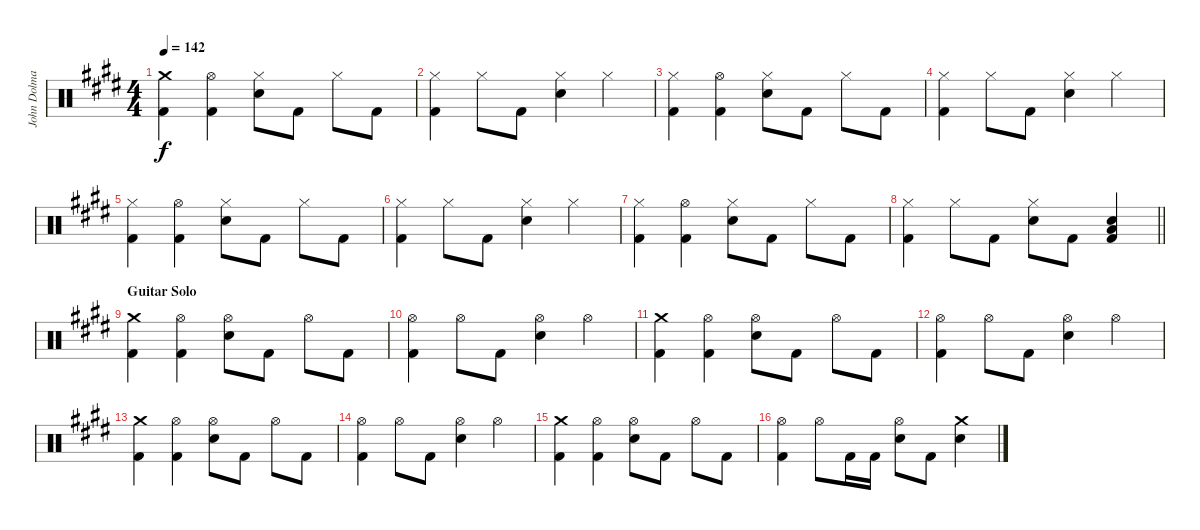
\track ("John Dolmayan [Drums]" "John Dolma") {instrument percussion}
\staff {score}
\articulation defaults
\ts (4 4)
\tempo 142
\clef neutral
\ks c#minor
("Crash medium (hit)" "Kick (hit) 2").4{dy f} ("Hi-Hat (open)" "Kick (hit) 2").4 ("Hi-Hat (closed)" "Electric Snare (hit)").8 "Kick (hit) 2".8 "Hi-Hat (closed)".8 "Kick (hit) 2".8 |
("Hi-Hat (closed)" "Kick (hit) 2").4 "Hi-Hat (closed)".8 "Kick (hit) 2".8 ("Hi-Hat (closed)" "Electric Snare (hit)").4 "Hi-Hat (closed)".4 |
("Hi-Hat (closed)" "Kick (hit) 2").4 ("Hi-Hat (open)" "Kick (hit) 2").4 ("Hi-Hat (closed)" "Electric Snare (hit)").8 "Kick (hit) 2".8 "Hi-Hat (closed)".8 "Kick (hit) 2".8 |
("Hi-Hat (closed)" "Kick (hit) 2").4 "Hi-Hat (closed)".8 "Kick (hit) 2".8 ("Hi-Hat (closed)" "Electric Snare (hit)").4 "Hi-Hat (closed)".4 |
("Hi-Hat (closed)" "Kick (hit) 2").4 ("Hi-Hat (open)" "Kick (hit) 2").4 ("Hi-Hat (closed)" "Electric Snare (hit)").8 "Kick (hit) 2".8 "Hi-Hat (closed)".8 "Kick (hit) 2".8 |
("Hi-Hat (closed)" "Kick (hit) 2").4 "Hi-Hat (closed)".8 "Kick (hit) 2".8 ("Hi-Hat (closed)" "Electric Snare (hit)").4 "Hi-Hat (closed)".4 |
("Hi-Hat (closed)" "Kick (hit) 2").4 ("Hi-Hat (open)" "Kick (hit) 2").4 ("Hi-Hat (closed)" "Electric Snare (hit)").8 "Kick (hit) 2".8 "Hi-Hat (closed)".8 "Kick (hit) 2".8 |
\barLineRight lightlight
("Hi-Hat (closed)" "Kick (hit) 2").4 "Hi-Hat (closed)".8 "Kick (hit) 2".8 ("Hi-Hat (closed)" "Electric Snare (hit)").8 "Kick (hit) 2".8 ("Low Floor Tom (hit)" "Electric Snare (hit)" "Kick (hit) 2").4 |
\section ("" "Guitar Solo")
("Crash medium (hit)" "Kick (hit) 2").4 ("Hi-Hat (open)" "Kick (hit) 2").4 ("Hi-Hat (open)" "Electric Snare (hit)").8 "Kick (hit) 2".8 "Hi-Hat (open)".8 "Kick (hit) 2".8 |
("Hi-Hat (open)" "Kick (hit) 2").4 "Hi-Hat (open)".8 "Kick (hit) 2".8 ("Hi-Hat (open)" "Electric Snare (hit)").4 "Hi-Hat (open)".4 |
("Crash medium (hit)" "Kick (hit) 2").4 ("Hi-Hat (open)" "Kick (hit) 2").4 ("Hi-Hat (open)" "Electric Snare (hit)").8 "Kick (hit) 2".8 "Hi-Hat (open)".8 "Kick (hit) 2".8 |
("Hi-Hat (open)" "Kick (hit) 2").4 "Hi-Hat (open)".8 "Kick (hit) 2".8 ("Hi-Hat (open)" "Electric Snare (hit)").4 "Hi-Hat (open)".4 |
("Crash medium (hit)" "Kick (hit) 2").4 ("Hi-Hat (open)" "Kick (hit) 2").4 ("Hi-Hat (open)" "Electric Snare (hit)").8 "Kick (hit) 2".8 "Hi-Hat (open)".8 "Kick (hit) 2".8 |
("Hi-Hat (open)" "Kick (hit) 2").4 "Hi-Hat (open)".8 "Kick (hit) 2".8 ("Hi-Hat (open)" "Electric Snare (hit)").4 "Hi-Hat (open)".4 |
("Crash medium (hit)" "Kick (hit) 2").4 ("Hi-Hat (open)" "Kick (hit) 2").4 ("Hi-Hat (open)" "Electric Snare (hit)").8 "Kick (hit) 2".8 "Hi-Hat (open)".8 "Kick (hit) 2".8 |
("Hi-Hat (open)" "Kick (hit) 2").4 "Hi-Hat (open)".8 "Kick (hit) 2".16 "Kick (hit) 2".16 ("Hi-Hat (open)" "Electric Snare (hit)").8 "Kick (hit) 2".8 ("Crash medium (hit)" "Electric Snare (hit)").4
